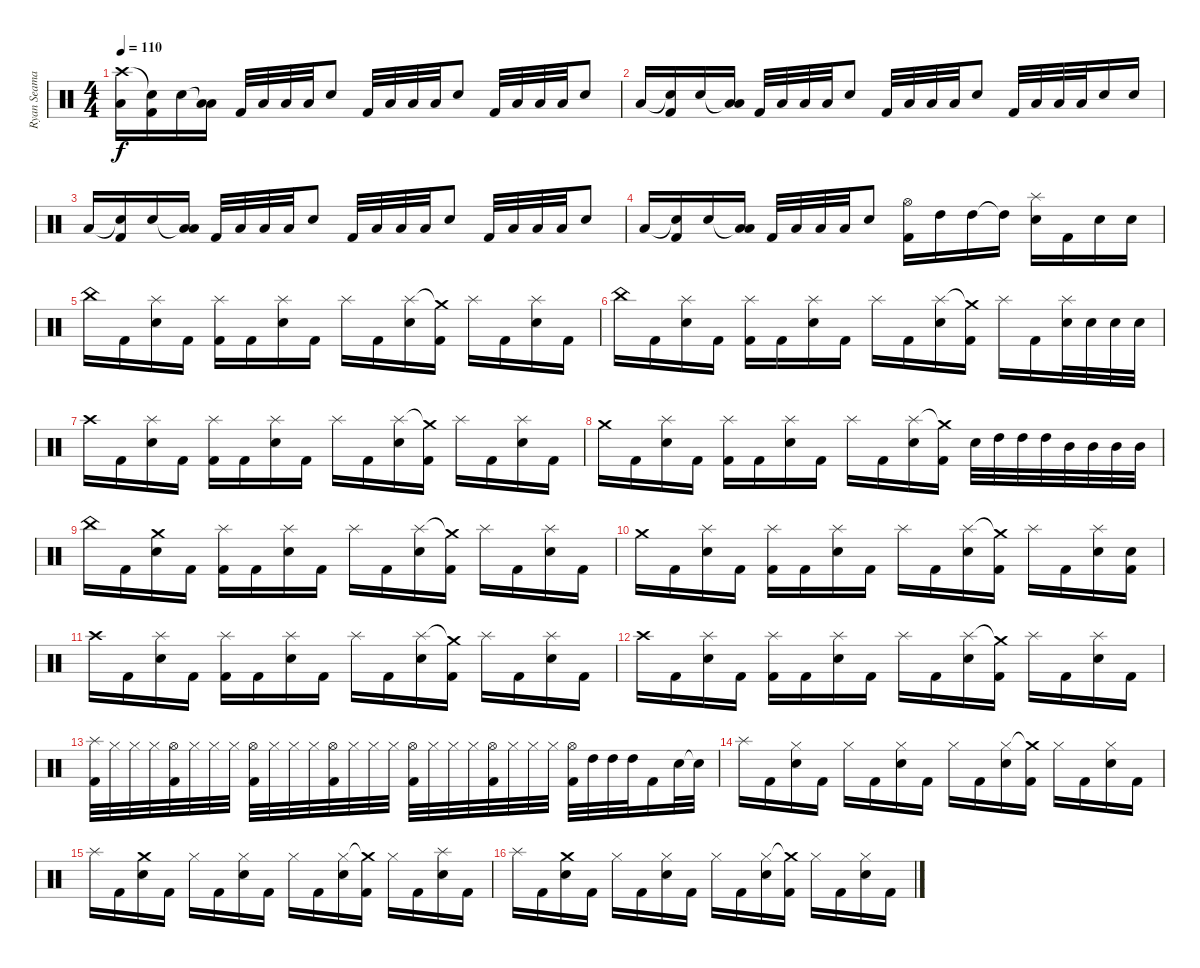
\track ("Ryan Seaman-Drums" "Ryan Seama") {instrument percussion}
\staff {score}
\articulation defaults
\ts (4 4)
\tempo 110
\clef neutral
\ks c
("Crash high (hit)" "Low Tom (hit)").16{dy f} ("Electric Snare (hit)"{t} "Kick (hit) 2").16 "Electric Snare (hit)".16 ("Low Floor Tom (hit)"{t} "Low Tom (hit)").16 "Kick (hit) 2".32 "Low Tom (hit)".32 "Low Tom (hit)".32 "Low Tom (hit)".32 "Electric Snare (hit)".8 "Kick (hit) 2".32 "Low Tom (hit)".32 "Low Tom (hit)".32 "Low Tom (hit)".32 "Electric Snare (hit)".8 "Kick (hit) 2".32 "Low Tom (hit)".32 "Low Tom (hit)".32 "Low Tom (hit)".32 "Electric Snare (hit)".8 |
"Low Tom (hit)".16 ("Electric Snare (hit)"{t} "Kick (hit) 2").16 "Electric Snare (hit)".16 ("Low Floor Tom (hit)"{t} "Low Tom (hit)").16 "Kick (hit) 2".32 "Low Tom (hit)".32 "Low Tom (hit)".32 "Low Tom (hit)".32 "Electric Snare (hit)".8 "Kick (hit) 2".32 "Low Tom (hit)".32 "Low Tom (hit)".32 "Low Tom (hit)".32 "Electric Snare (hit)".8 "Kick (hit) 2".32 "Low Tom (hit)".32 "Low Tom (hit)".32 "Low Tom (hit)".32 "Electric Snare (hit)".16 "Electric Snare (hit)".16 |
"Low Tom (hit)".16 ("Electric Snare (hit)"{t} "Kick (hit) 2").16 "Electric Snare (hit)".16 ("Low Floor Tom (hit)"{t} "Low Tom (hit)").16 "Kick (hit) 2".32 "Low Tom (hit)".32 "Low Tom (hit)".32 "Low Tom (hit)".32 "Electric Snare (hit)".8 "Kick (hit) 2".32 "Low Tom (hit)".32 "Low Tom (hit)".32 "Low Tom (hit)".32 "Electric Snare (hit)".8 "Kick (hit) 2".32 "Low Tom (hit)".32 "Low Tom (hit)".32 "Low Tom (hit)".32 "Electric Snare (hit)".8 |
"Low Tom (hit)".16 ("Electric Snare (hit)"{t} "Kick (hit) 2").16 "Electric Snare (hit)".16 ("Low Floor Tom (hit)"{t} "Low Tom (hit)").16 "Kick (hit) 2".32 "Low Tom (hit)".32 "Low Tom (hit)".32 "Low Tom (hit)".32 "Electric Snare (hit)".8 ("Hi-Hat (open)" "Kick (hit) 2").16 "High Tom (hit)".16 "High Tom (hit)".16 "High Tom (hit)"{t}.16 ("Splash (hit)" "Electric Snare (hit)").16 "Kick (hit) 2".16 "Electric Snare (hit)".16 "Electric Snare (hit)".16 |
"China (hit)".16 "Kick (hit) 2".16 ("Splash (hit)" "Electric Snare (hit)").16 "Kick (hit) 2".16 ("Splash (hit)" "Kick (hit) 2").16 "Kick (hit) 2".16 ("Splash (hit)" "Electric Snare (hit)").16 "Kick (hit) 2".16 "Splash (hit)".16 "Kick (hit) 2".16 ("Splash (hit)" "Electric Snare (hit)").16 ("Crash medium (hit)"{t} "Kick (hit) 2").16 "Splash (hit)".16 "Kick (hit) 2".16 ("Electric Snare (hit)" "Splash (hit)").16 "Kick (hit) 2".16 |
"China (hit)".16 "Kick (hit) 2".16 ("Splash (hit)" "Electric Snare (hit)").16 "Kick (hit) 2".16 ("Splash (hit)" "Kick (hit) 2").16 "Kick (hit) 2".16 ("Splash (hit)" "Electric Snare (hit)").16 "Kick (hit) 2".16 "Splash (hit)".16 "Kick (hit) 2".16 ("Splash (hit)" "Electric Snare (hit)").16 ("Crash medium (hit)"{t} "Kick (hit) 2").16 "Splash (hit)".16 "Kick (hit) 2".16 ("Electric Snare (hit)" "Splash (hit)").32 "Electric Snare (hit)".32 "Electric Snare (hit)".32 "Electric Snare (hit)".32 |
"Crash high (hit)".16 "Kick (hit) 2".16 ("Splash (hit)" "Electric Snare (hit)").16 "Kick (hit) 2".16 ("Splash (hit)" "Kick (hit) 2").16 "Kick (hit) 2".16 ("Splash (hit)" "Electric Snare (hit)").16 "Kick (hit) 2".16 "Splash (hit)".16 "Kick (hit) 2".16 ("Splash (hit)" "Electric Snare (hit)").16 ("Crash medium (hit)"{t} "Kick (hit) 2").16 "Splash (hit)".16 "Kick (hit) 2".16 ("Electric Snare (hit)" "Splash (hit)").16 "Kick (hit) 2".16 |
"Crash medium (hit)".16 "Kick (hit) 2".16 ("Splash (hit)" "Electric Snare (hit)").16 "Kick (hit) 2".16 ("Splash (hit)" "Kick (hit) 2").16 "Kick (hit) 2".16 ("Splash (hit)" "Electric Snare (hit)").16 "Kick (hit) 2".16 "Splash (hit)".16 "Kick (hit) 2".16 ("Splash (hit)" "Electric Snare (hit)").16 ("Crash medium (hit)"{t} "Kick (hit) 2").16 "Electric Snare (hit)".32 "High Tom (hit)".32 "High Tom (hit)".32 "High Tom (hit)".32 "Mid Tom (hit)".32 "Mid Tom (hit)".32 "Mid Tom (hit)".32 "Mid Tom (hit)".32 |
"China (hit)".16 "Kick (hit) 2".16 ("Crash medium (hit)" "Electric Snare (hit)").16 "Kick (hit) 2".16 ("Splash (hit)" "Kick (hit) 2").16 "Kick (hit) 2".16 ("Splash (hit)" "Electric Snare (hit)").16 "Kick (hit) 2".16 "Splash (hit)".16 "Kick (hit) 2".16 ("Splash (hit)" "Electric Snare (hit)").16 ("Crash medium (hit)"{t} "Kick (hit) 2").16 "Splash (hit)".16 "Kick (hit) 2".16 ("Electric Snare (hit)" "Splash (hit)").16 "Kick (hit) 2".16 |
"Crash medium (hit)".16 "Kick (hit) 2".16 ("Splash (hit)" "Electric Snare (hit)").16 "Kick (hit) 2".16 ("Splash (hit)" "Kick (hit) 2").16 "Kick (hit) 2".16 ("Splash (hit)" "Electric Snare (hit)").16 "Kick (hit) 2".16 "Splash (hit)".16 "Kick (hit) 2".16 ("Splash (hit)" "Electric Snare (hit)").16 ("Crash medium (hit)"{t} "Kick (hit) 2").16 "Splash (hit)".16 "Kick (hit) 2".16 ("Electric Snare (hit)" "Splash (hit)").16 ("Electric Snare (hit)" "Kick (hit) 2").16 |
"Crash high (hit)".16 "Kick (hit) 2".16 ("Splash (hit)" "Electric Snare (hit)").16 "Kick (hit) 2".16 ("Splash (hit)" "Kick (hit) 2").16 "Kick (hit) 2".16 ("Splash (hit)" "Electric Snare (hit)").16 "Kick (hit) 2".16 "Splash (hit)".16 "Kick (hit) 2".16 ("Splash (hit)" "Electric Snare (hit)").16 ("Crash medium (hit)"{t} "Kick (hit) 2").16 "Splash (hit)".16 "Kick (hit) 2".16 ("Electric Snare (hit)" "Splash (hit)").16 "Kick (hit) 2".16 |
"Crash high (hit)".16 "Kick (hit) 2".16 ("Splash (hit)" "Electric Snare (hit)").16 "Kick (hit) 2".16 ("Splash (hit)" "Kick (hit) 2").16 "Kick (hit) 2".16 ("Splash (hit)" "Electric Snare (hit)").16 "Kick (hit) 2".16 "Splash (hit)".16 "Kick (hit) 2".16 ("Splash (hit)" "Electric Snare (hit)").16 ("Crash medium (hit)"{t} "Kick (hit) 2").16 "Splash (hit)".16 "Kick (hit) 2".16 ("Electric Snare (hit)" "Splash (hit)").16 "Kick (hit) 2".16 |
("Splash (hit)" "Kick (hit) 2").32 "Hi-Hat (closed)".32 "Hi-Hat (closed)".32 "Hi-Hat (closed)".32 ("Hi-Hat (open)" "Kick (hit) 2").32 "Hi-Hat (closed)".32 "Hi-Hat (closed)".32 "Hi-Hat (closed)".32 ("Hi-Hat (open)" "Kick (hit) 2").32 "Hi-Hat (closed)".32 "Hi-Hat (closed)".32 "Hi-Hat (closed)".32 ("Hi-Hat (open)" "Kick (hit) 2").32 "Hi-Hat (closed)".32 "Hi-Hat (closed)".32 "Hi-Hat (closed)".32 ("Hi-Hat (open)" "Kick (hit) 2").32 "Hi-Hat (closed)".32 "Hi-Hat (closed)".32 "Hi-Hat (closed)".32 ("Hi-Hat (open)" "Kick (hit) 2").32 "Hi-Hat (closed)".32 "Hi-Hat (closed)".32 "Hi-Hat (closed)".32 ("Hi-Hat (open)" "Kick (hit) 2").32 "High Tom (hit)".32 "High Tom (hit)".32 "High Tom (hit)".32 "Kick (hit) 2".16 "Electric Snare (hit)".32 "Electric Snare (hit)"{t}.32 |
"Splash (hit)".16 "Kick (hit) 2".16 ("Hi-Hat (closed)" "Electric Snare (hit)").16 "Kick (hit) 2".16 "Hi-Hat (closed)".16 "Kick (hit) 2".16 ("Hi-Hat (closed)" "Electric Snare (hit)").16 "Kick (hit) 2".16 "Hi-Hat (closed)".16 "Kick (hit) 2".16 ("Hi-Hat (closed)" "Electric Snare (hit)").16 ("Crash medium (hit)"{t} "Kick (hit) 2").16 "Hi-Hat (closed)".16 "Kick (hit) 2".16 ("Electric Snare (hit)" "Hi-Hat (closed)").16 "Kick (hit) 2".16 |
"Splash (hit)".16 "Kick (hit) 2".16 ("Crash medium (hit)" "Electric Snare (hit)").16 "Kick (hit) 2".16 "Hi-Hat (closed)".16 "Kick (hit) 2".16 ("Hi-Hat (closed)" "Electric Snare (hit)").16 "Kick (hit) 2".16 "Hi-Hat (closed)".16 "Kick (hit) 2".16 ("Hi-Hat (closed)" "Electric Snare (hit)").16 ("Crash medium (hit)"{t} "Kick (hit) 2").16 "Hi-Hat (closed)".16 "Kick (hit) 2".16 ("Electric Snare (hit)" "Splash (hit)").16 "Kick (hit) 2".16 |
"Splash (hit)".16 "Kick (hit) 2".16 ("Crash medium (hit)" "Electric Snare (hit)").16 "Kick (hit) 2".16 "Hi-Hat (closed)".16 "Kick (hit) 2".16 ("Hi-Hat (closed)" "Electric Snare (hit)").16 "Kick (hit) 2".16 "Hi-Hat (closed)".16 "Kick (hit) 2".16 ("Hi-Hat (closed)" "Electric Snare (hit)").16 ("Crash medium (hit)"{t} "Kick (hit) 2").16 "Hi-Hat (closed)".16 "Kick (hit) 2".16 ("Electric Snare (hit)" "Hi-Hat (closed)").16 "Kick (hit) 2".16
